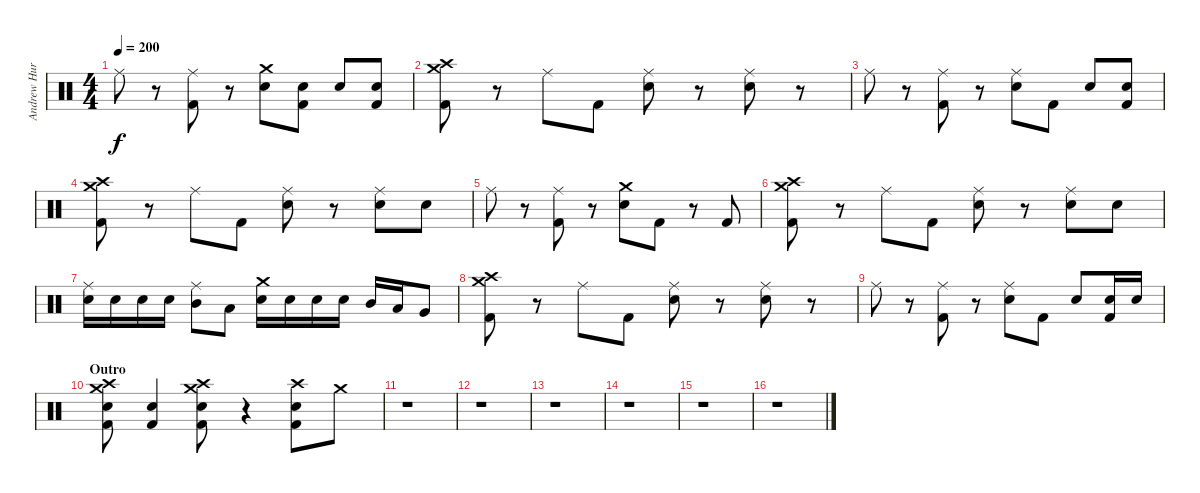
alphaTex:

\track ("Andrew Hurley (Drums)" "Andrew Hur") {instrument percussion}
\staff {score}
\articulation defaults
\ts (4 4)
\tempo 200
\clef neutral
\ks c "Ride (middle)".8{dy f}
r.8 ("Ride (middle)" "Kick (hit) 2").8 r.8 ("Crash medium (hit)" "Electric Snare (hit)").8 ("Electric Snare (hit)" "Kick (hit) 2").8 "Electric Snare (hit)".8 ("Electric Snare (hit)" "Kick (hit) 2").8 |
("Crash medium (hit)" "Crash high (hit)" "Kick (hit) 2").8 r.8 "Ride (middle)".8 "Kick (hit) 2".8 ("Ride (middle)" "Electric Snare (hit)").8 r.8 ("Ride (middle)" "Electric Snare (hit)").8 r.8 |
"Ride (middle)".8 r.8 ("Ride (middle)" "Kick (hit) 2").8 r.8 ("Ride (middle)" "Electric Snare (hit)").8 "Kick (hit) 2".8 "Electric Snare (hit)".8 ("Electric Snare (hit)" "Kick (hit) 2").8 |
("Crash medium (hit)" "Crash high (hit)" "Kick (hit) 2").8 r.8 "Ride (middle)".8 "Kick (hit) 2".8 ("Ride (middle)" "Electric Snare (hit)").8 r.8 ("Ride (middle)" "Electric Snare (hit)").8 "Electric Snare (hit)".8 |
"Ride (middle)".8 r.8 ("Ride (middle)" "Kick (hit) 2").8 r.8 ("Crash medium (hit)" "Electric Snare (hit)").8 "Kick (hit) 2".8 r.8 "Kick (hit) 2".8 |
("Crash medium (hit)" "Crash high (hit)" "Kick (hit) 2").8 r.8 "Ride (middle)".8 "Kick (hit) 2".8 ("Ride (middle)" "Electric Snare (hit)").8 r.8 ("Ride (middle)" "Electric Snare (hit)").8 "Electric Snare (hit)".8 |
("Ride (middle)" "Electric Snare (hit)").16 "Electric Snare (hit)".16 "Snare (hit) 2".16 "Snare (hit) 2".16 ("Ride (middle)" "Mid Tom (hit)").8 "Low Tom (hit)".8 ("Crash medium (hit)" "Electric Snare (hit)").16 "Electric Snare (hit)".16 "Electric Snare (hit)".16 "Snare (hit) 2".16 "Mid Tom (hit)".16 "Low Tom (hit)".16 "Very Low Tom (hit)".8 |
("Crash medium (hit)" "Crash high (hit)" "Kick (hit) 2").8 r.8 "Ride (middle)".8 "Kick (hit) 2".8 ("Ride (middle)" "Electric Snare (hit)").8 r.8 ("Ride (middle)" "Electric Snare (hit)").8 r.8 |
"Ride (middle)".8 r.8 ("Ride (middle)" "Kick (hit) 2").8 r.8 ("Ride (middle)" "Electric Snare (hit)").8 "Kick (hit) 2".8 "Electric Snare (hit)".8 ("Electric Snare (hit)" "Kick (hit) 2").16 "Electric Snare (hit)".16 |
\section ("" "Outro")
("Crash medium (hit)" "Crash high (hit)" "Electric Snare (hit)" "Kick (hit) 2").8 ("Electric Snare (hit)" "Kick (hit) 2").4 ("Crash medium (hit)" "Crash high (hit)" "Electric Snare (hit)" "Kick (hit) 2").8 r.4 ("Crash high (hit)" "Electric Snare (hit)" "Kick (hit) 2").8 "Crash medium (hit)".8 |
r.1 |
r.1 |
r.1 |
r.1 |
r.1 |
r.1
